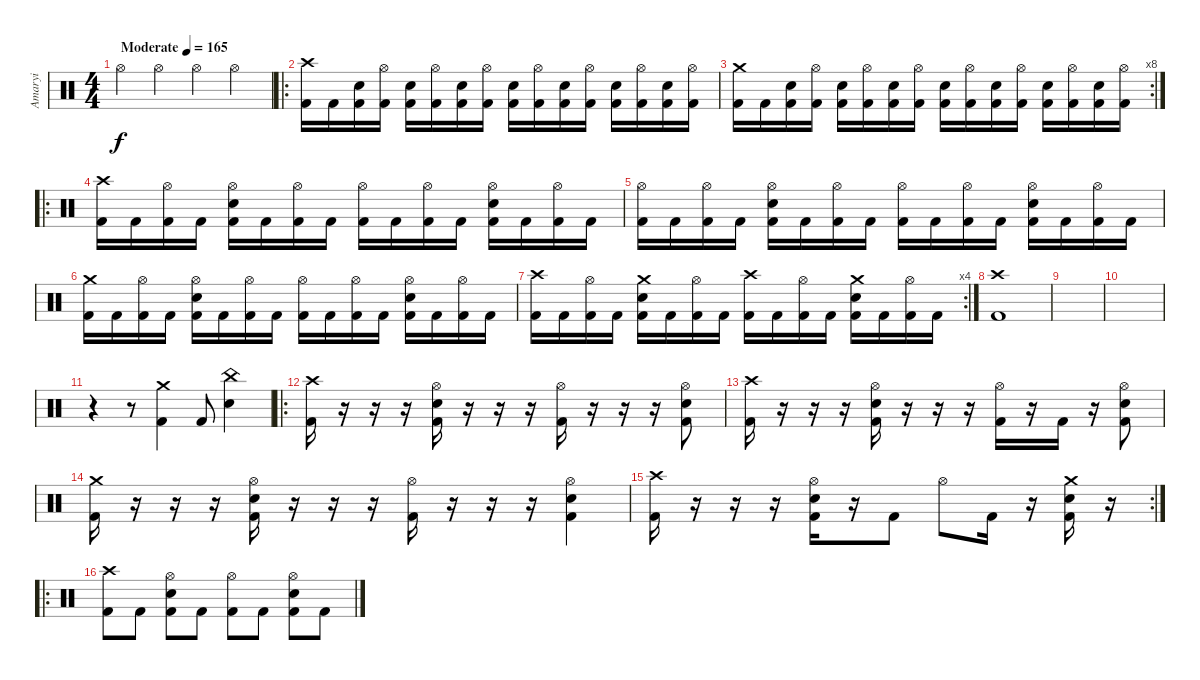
\track ("Amaryi" "Amaryi") {instrument percussion}
\staff {score}
\articulation defaults
\ts (4 4)
\tempo (165 "Moderate")
\clef neutral
\ks c "Hi-Hat (open)".4{dy f} "Hi-Hat (open)".4 "Hi-Hat (open)".4 "Hi-Hat (open)".4
|
\ro
("Crash high (hit)" "Kick (hit) 2").16 "Kick (hit) 2".16 ("Electric Snare (hit)" "Kick (hit) 2").16 ("Hi-Hat (open)" "Kick (hit) 2").16 ("Electric Snare (hit)" "Kick (hit) 2").16 ("Hi-Hat (open)" "Kick (hit) 2").16 ("Electric Snare (hit)" "Kick (hit) 2").16 ("Hi-Hat (open)" "Kick (hit) 2").16 ("Electric Snare (hit)" "Kick (hit) 2").16 ("Hi-Hat (open)" "Kick (hit) 2").16 ("Electric Snare (hit)" "Kick (hit) 2").16 ("Hi-Hat (open)" "Kick (hit) 2").16 ("Electric Snare (hit)" "Kick (hit) 2").16 ("Hi-Hat (open)" "Kick (hit) 2").16 ("Electric Snare (hit)" "Kick (hit) 2").16 ("Hi-Hat (open)" "Kick (hit) 2").16 |
\rc 8
("Crash medium (hit)" "Kick (hit) 2").16 "Kick (hit) 2".16 ("Electric Snare (hit)" "Kick (hit) 2").16 ("Hi-Hat (open)" "Kick (hit) 2").16 ("Electric Snare (hit)" "Kick (hit) 2").16 ("Hi-Hat (open)" "Kick (hit) 2").16 ("Electric Snare (hit)" "Kick (hit) 2").16 ("Hi-Hat (open)" "Kick (hit) 2").16 ("Electric Snare (hit)" "Kick (hit) 2").16 ("Hi-Hat (open)" "Kick (hit) 2").16 ("Electric Snare (hit)" "Kick (hit) 2").16 ("Hi-Hat (open)" "Kick (hit) 2").16 ("Electric Snare (hit)" "Kick (hit) 2").16 ("Hi-Hat (open)" "Kick (hit) 2").16 ("Electric Snare (hit)" "Kick (hit) 2").16 ("Hi-Hat (open)" "Kick (hit) 2").16 |
\ro
("Crash high (hit)" "Kick (hit) 2").16 "Kick (hit) 2".16 ("Hi-Hat (open)" "Kick (hit) 2").16 "Kick (hit) 2".16 ("Hi-Hat (open)" "Electric Snare (hit)" "Kick (hit) 2").16 "Kick (hit) 2".16 ("Hi-Hat (open)" "Kick (hit) 2").16 "Kick (hit) 2".16 ("Hi-Hat (open)" "Kick (hit) 2").16 "Kick (hit) 2".16 ("Hi-Hat (open)" "Kick (hit) 2").16 "Kick (hit) 2".16 ("Hi-Hat (open)" "Electric Snare (hit)" "Kick (hit) 2").16 "Kick (hit) 2".16 ("Hi-Hat (open)" "Kick (hit) 2").16 "Kick (hit) 2".16 |
("Hi-Hat (open)" "Kick (hit) 2").16 "Kick (hit) 2".16 ("Hi-Hat (open)" "Kick (hit) 2").16 "Kick (hit) 2".16 ("Hi-Hat (open)" "Electric Snare (hit)" "Kick (hit) 2").16 "Kick (hit) 2".16 ("Hi-Hat (open)" "Kick (hit) 2").16 "Kick (hit) 2".16 ("Hi-Hat (open)" "Kick (hit) 2").16 "Kick (hit) 2".16 ("Hi-Hat (open)" "Kick (hit) 2").16 "Kick (hit) 2".16 ("Hi-Hat (open)" "Electric Snare (hit)" "Kick (hit) 2").16 "Kick (hit) 2".16 ("Hi-Hat (open)" "Kick (hit) 2").16 "Kick (hit) 2".16 |
("Crash medium (hit)" "Kick (hit) 2").16 "Kick (hit) 2".16 ("Hi-Hat (open)" "Kick (hit) 2").16 "Kick (hit) 2".16 ("Hi-Hat (open)" "Electric Snare (hit)" "Kick (hit) 2").16 "Kick (hit) 2".16 ("Hi-Hat (open)" "Kick (hit) 2").16 "Kick (hit) 2".16 ("Hi-Hat (open)" "Kick (hit) 2").16 "Kick (hit) 2".16 ("Hi-Hat (open)" "Kick (hit) 2").16 "Kick (hit) 2".16 ("Hi-Hat (open)" "Electric Snare (hit)" "Kick (hit) 2").16 "Kick (hit) 2".16 ("Hi-Hat (open)" "Kick (hit) 2").16 "Kick (hit) 2".16 |
\rc 4
("Crash high (hit)" "Kick (hit) 2").16 "Kick (hit) 2".16 ("Hi-Hat (open)" "Kick (hit) 2").16 "Kick (hit) 2".16 ("Crash medium (hit)" "Electric Snare (hit)" "Kick (hit) 2").16 "Kick (hit) 2".16 ("Hi-Hat (open)" "Kick (hit) 2").16 "Kick (hit) 2".16 ("Crash high (hit)" "Kick (hit) 2").16 "Kick (hit) 2".16 ("Hi-Hat (open)" "Kick (hit) 2").16 "Kick (hit) 2".16 ("Crash medium (hit)" "Electric Snare (hit)" "Kick (hit) 2").16 "Kick (hit) 2".16 ("Hi-Hat (open)" "Kick (hit) 2").16 "Kick (hit) 2".16 |
("Crash high (hit)" "Kick (hit) 2").1 |
|
|
r.4 r.8 ("Crash medium (hit)" "Kick (hit) 2").4 "Kick (hit) 2".8 ("China (hit)" "Electric Snare (hit)").4 |
\ro
("Crash high (hit)" "Kick (hit) 2").16 r.16 r.16 r.16 ("Hi-Hat (open)" "Electric Snare (hit)" "Kick (hit) 2").16 r.16 r.16 r.16 ("Hi-Hat (open)" "Kick (hit) 2").16 r.16 r.16 r.16 ("Hi-Hat (open)" "Electric Snare (hit)" "Kick (hit) 2").8 |
("Crash high (hit)" "Kick (hit) 2").16 r.16 r.16 r.16 ("Hi-Hat (open)" "Electric Snare (hit)" "Kick (hit) 2").16 r.16 r.16 r.16 ("Hi-Hat (open)" "Kick (hit) 2").16 r.16 "Kick (hit) 2".16 r.16 ("Hi-Hat (open)" "Electric Snare (hit)" "Kick (hit) 2").8 |
("Crash medium (hit)" "Kick (hit) 2").16 r.16 r.16 r.16 ("Hi-Hat (open)" "Electric Snare (hit)" "Kick (hit) 2").16 r.16 r.16 r.16 ("Hi-Hat (open)" "Kick (hit) 2").16 r.16 r.16 r.16 ("Hi-Hat (open)" "Electric Snare (hit)" "Kick (hit) 2").4 |
\rc 2
("Crash high (hit)" "Kick (hit) 2").16 r.16 r.16 r.16 ("Hi-Hat (open)" "Electric Snare (hit)" "Kick (hit) 2").16 r.16 "Kick (hit) 2".8 "Hi-Hat (open)".8 "Kick (hit) 2".16 r.16 ("Crash medium (hit)" "Electric Snare (hit)" "Kick (hit) 2").16 r.16 |
\ro
("Crash high (hit)" "Kick (hit) 2").8 "Kick (hit) 2".8 ("Hi-Hat (open)" "Electric Snare (hit)" "Kick (hit) 2").8 "Kick (hit) 2".8 ("Hi-Hat (open)" "Kick (hit) 2").8 "Kick (hit) 2".8 ("Hi-Hat (open)" "Electric Snare (hit)" "Kick (hit) 2").8 "Kick (hit) 2".8
